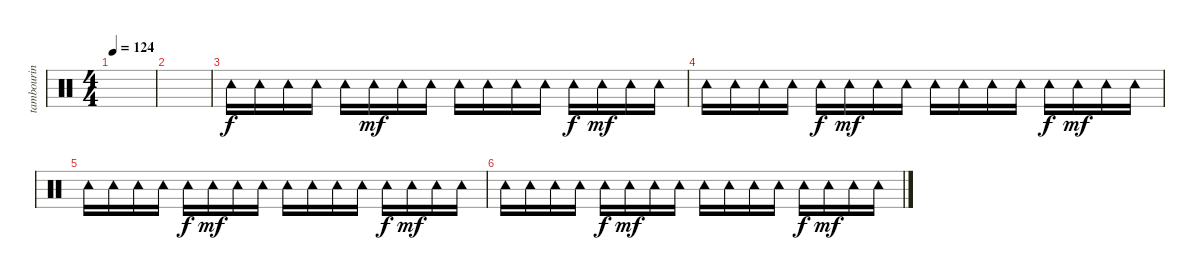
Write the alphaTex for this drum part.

\track ("tambourin" "tambourin") {instrument percussion}
\staff {score}
\articulation defaults
\ts (4 4)
\tempo 124
\clef neutral
\ks c
|
|
"Tambourine (hit)".16 "Tambourine (hit)".16 "Tambourine (hit)".16 "Tambourine (hit)".16 "Tambourine (hit)".16{dy f} "Tambourine (hit)".16{dy mf} "Tambourine (hit)".16 "Tambourine (hit)".16 "Tambourine (hit)".16 "Tambourine (hit)".16 "Tambourine (hit)".16 "Tambourine (hit)".16 "Tambourine (hit)".16{dy f} "Tambourine (hit)".16{dy mf} "Tambourine (hit)".16 "Tambourine (hit)".16 |
"Tambourine (hit)".16 "Tambourine (hit)".16 "Tambourine (hit)".16 "Tambourine (hit)".16 "Tambourine (hit)".16{dy f} "Tambourine (hit)".16{dy mf} "Tambourine (hit)".16 "Tambourine (hit)".16 "Tambourine (hit)".16 "Tambourine (hit)".16 "Tambourine (hit)".16 "Tambourine (hit)".16 "Tambourine (hit)".16{dy f} "Tambourine (hit)".16{dy mf} "Tambourine (hit)".16 "Tambourine (hit)".16 |
"Tambourine (hit)".16 "Tambourine (hit)".16 "Tambourine (hit)".16 "Tambourine (hit)".16 "Tambourine (hit)".16{dy f} "Tambourine (hit)".16{dy mf} "Tambourine (hit)".16 "Tambourine (hit)".16 "Tambourine (hit)".16 "Tambourine (hit)".16 "Tambourine (hit)".16 "Tambourine (hit)".16 "Tambourine (hit)".16{dy f} "Tambourine (hit)".16{dy mf} "Tambourine (hit)".16 "Tambourine (hit)".16 |
"Tambourine (hit)".16 "Tambourine (hit)".16 "Tambourine (hit)".16 "Tambourine (hit)".16 "Tambourine (hit)".16{dy f} "Tambourine (hit)".16{dy mf} "Tambourine (hit)".16 "Tambourine (hit)".16 "Tambourine (hit)".16 "Tambourine (hit)".16 "Tambourine (hit)".16 "Tambourine (hit)".16 "Tambourine (hit)".16{dy f} "Tambourine (hit)".16{dy mf} "Tambourine (hit)".16 "Tambourine (hit)".16
